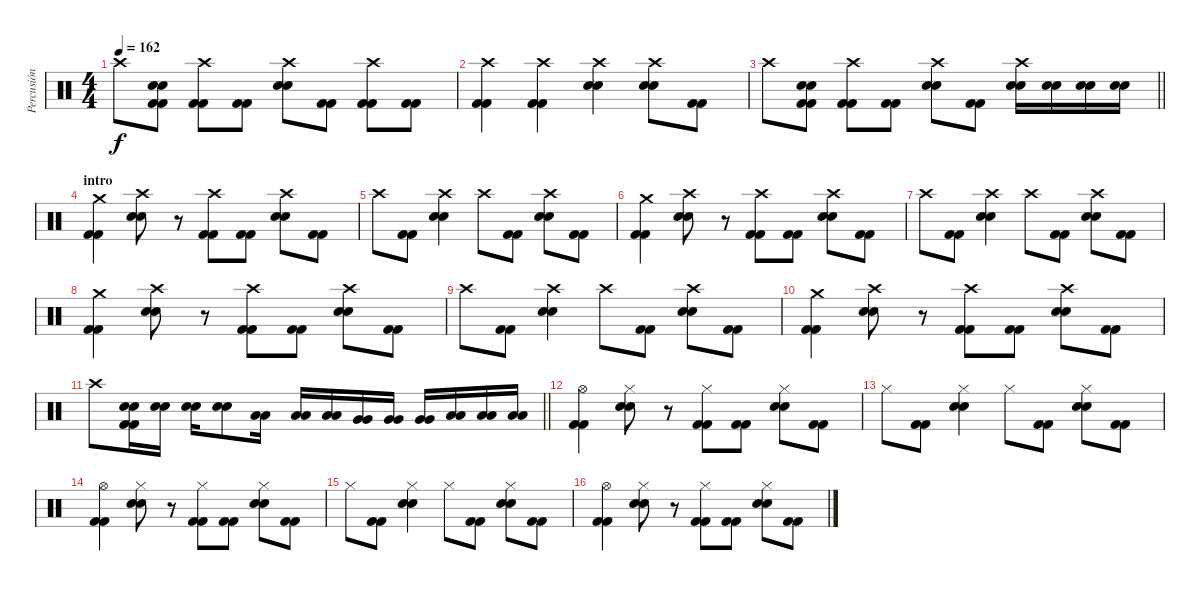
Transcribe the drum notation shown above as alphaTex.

\track ("Percusión" "Percusión") {instrument percussion}
\staff {score}
\articulation defaults
\ts (4 4)
\tempo 162
\clef neutral
\ks c "Crash high (hit)".8{dy f}
("Electric Snare (hit)" "Electric Snare (hit)" "Kick (hit) 2" "Kick (hit) 2").8 ("Crash high (hit)" "Kick (hit) 2" "Kick (hit) 2").8 ("Kick (hit) 2" "Kick (hit) 2").8 ("Crash high (hit)" "Electric Snare (hit)" "Electric Snare (hit)").8 ("Kick (hit) 2" "Kick (hit) 2").8 ("Crash high (hit)" "Kick (hit) 2" "Kick (hit) 2").8 ("Kick (hit) 2" "Kick (hit) 2").8 |
("Crash high (hit)" "Kick (hit) 2" "Kick (hit) 2").4 ("Crash high (hit)" "Kick (hit) 2" "Kick (hit) 2").4 ("Crash high (hit)" "Electric Snare (hit)" "Electric Snare (hit)").4 ("Crash high (hit)" "Electric Snare (hit)" "Electric Snare (hit)").8 ("Kick (hit) 2" "Kick (hit) 2").8 |
\barLineRight lightlight "Crash high (hit)".8
("Electric Snare (hit)" "Electric Snare (hit)" "Kick (hit) 2" "Kick (hit) 2").8 ("Crash high (hit)" "Kick (hit) 2" "Kick (hit) 2").8 ("Kick (hit) 2" "Kick (hit) 2").8 ("Crash high (hit)" "Electric Snare (hit)" "Electric Snare (hit)").8 ("Kick (hit) 2" "Kick (hit) 2").8 ("Crash high (hit)" "Electric Snare (hit)" "Electric Snare (hit)").16 ("Electric Snare (hit)" "Electric Snare (hit)").16 ("Electric Snare (hit)" "Electric Snare (hit)").16 ("Electric Snare (hit)" "Electric Snare (hit)").16 |
\section ("" "intro")
("Crash medium (hit)" "Kick (hit) 2" "Kick (hit) 2").4 ("Crash high (hit)" "Electric Snare (hit)" "Electric Snare (hit)").8 r.8 ("Crash high (hit)" "Kick (hit) 2" "Kick (hit) 2").8 ("Kick (hit) 2" "Kick (hit) 2").8 ("Crash high (hit)" "Electric Snare (hit)" "Electric Snare (hit)").8 ("Kick (hit) 2" "Kick (hit) 2").8 |
"Crash high (hit)".8 ("Kick (hit) 2" "Kick (hit) 2").8 ("Crash high (hit)" "Electric Snare (hit)" "Electric Snare (hit)").4 "Crash high (hit)".8 ("Kick (hit) 2" "Kick (hit) 2").8 ("Crash high (hit)" "Electric Snare (hit)" "Electric Snare (hit)").8 ("Kick (hit) 2" "Kick (hit) 2").8 |
("Crash medium (hit)" "Kick (hit) 2" "Kick (hit) 2").4 ("Crash high (hit)" "Electric Snare (hit)" "Electric Snare (hit)").8 r.8 ("Crash high (hit)" "Kick (hit) 2" "Kick (hit) 2").8 ("Kick (hit) 2" "Kick (hit) 2").8 ("Crash high (hit)" "Electric Snare (hit)" "Electric Snare (hit)").8 ("Kick (hit) 2" "Kick (hit) 2").8 |
"Crash high (hit)".8 ("Kick (hit) 2" "Kick (hit) 2").8 ("Crash high (hit)" "Electric Snare (hit)" "Electric Snare (hit)").4 "Crash high (hit)".8 ("Kick (hit) 2" "Kick (hit) 2").8 ("Crash high (hit)" "Electric Snare (hit)" "Electric Snare (hit)").8 ("Kick (hit) 2" "Kick (hit) 2").8 |
("Crash medium (hit)" "Kick (hit) 2" "Kick (hit) 2").4 ("Crash high (hit)" "Electric Snare (hit)" "Electric Snare (hit)").8 r.8 ("Crash high (hit)" "Kick (hit) 2" "Kick (hit) 2").8 ("Kick (hit) 2" "Kick (hit) 2").8 ("Crash high (hit)" "Electric Snare (hit)" "Electric Snare (hit)").8 ("Kick (hit) 2" "Kick (hit) 2").8 |
"Crash high (hit)".8 ("Kick (hit) 2" "Kick (hit) 2").8 ("Crash high (hit)" "Electric Snare (hit)" "Electric Snare (hit)").4 "Crash high (hit)".8 ("Kick (hit) 2" "Kick (hit) 2").8 ("Crash high (hit)" "Electric Snare (hit)" "Electric Snare (hit)").8 ("Kick (hit) 2" "Kick (hit) 2").8 |
("Crash medium (hit)" "Kick (hit) 2" "Kick (hit) 2").4 ("Crash high (hit)" "Electric Snare (hit)" "Electric Snare (hit)").8 r.8 ("Crash high (hit)" "Kick (hit) 2" "Kick (hit) 2").8 ("Kick (hit) 2" "Kick (hit) 2").8 ("Crash high (hit)" "Electric Snare (hit)" "Electric Snare (hit)").8 ("Kick (hit) 2" "Kick (hit) 2").8 |
\barLineRight lightlight "Crash high (hit)".8
("Electric Snare (hit)" "Electric Snare (hit)" "Kick (hit) 2" "Kick (hit) 2").16 ("Electric Snare (hit)" "Electric Snare (hit)").16 ("Electric Snare (hit)" "Electric Snare (hit)").16 ("Electric Snare (hit)" "Electric Snare (hit)").8 ("Low Tom (hit)" "Low Tom (hit)").16 ("Low Tom (hit)" "Low Tom (hit)").16 ("Low Tom (hit)" "Low Tom (hit)").16 ("Very Low Tom (hit)" "Very Low Tom (hit)").16 ("Very Low Tom (hit)" "Very Low Tom (hit)").16 ("Very Low Tom (hit)" "Very Low Tom (hit)").16 ("Low Floor Tom (hit)" "Low Floor Tom (hit)").16 ("Low Floor Tom (hit)" "Low Floor Tom (hit)").16 ("Low Floor Tom (hit)" "Low Floor Tom (hit)").16 |
("Hi-Hat (open)" "Kick (hit) 2" "Kick (hit) 2").4 ("Hi-Hat (closed)" "Electric Snare (hit)" "Electric Snare (hit)").8 r.8 ("Hi-Hat (closed)" "Kick (hit) 2" "Kick (hit) 2").8 ("Kick (hit) 2" "Kick (hit) 2").8 ("Hi-Hat (closed)" "Electric Snare (hit)" "Electric Snare (hit)").8 ("Kick (hit) 2" "Kick (hit) 2").8 |
"Hi-Hat (closed)".8 ("Kick (hit) 2" "Kick (hit) 2").8 ("Hi-Hat (closed)" "Electric Snare (hit)" "Electric Snare (hit)").4 "Hi-Hat (closed)".8 ("Kick (hit) 2" "Kick (hit) 2").8 ("Hi-Hat (closed)" "Electric Snare (hit)" "Electric Snare (hit)").8 ("Kick (hit) 2" "Kick (hit) 2").8 |
("Hi-Hat (open)" "Kick (hit) 2" "Kick (hit) 2").4 ("Hi-Hat (closed)" "Electric Snare (hit)" "Electric Snare (hit)").8 r.8 ("Hi-Hat (closed)" "Kick (hit) 2" "Kick (hit) 2").8 ("Kick (hit) 2" "Kick (hit) 2").8 ("Hi-Hat (closed)" "Electric Snare (hit)" "Electric Snare (hit)").8 ("Kick (hit) 2" "Kick (hit) 2").8 |
"Hi-Hat (closed)".8 ("Kick (hit) 2" "Kick (hit) 2").8 ("Hi-Hat (closed)" "Electric Snare (hit)" "Electric Snare (hit)").4 "Hi-Hat (closed)".8 ("Kick (hit) 2" "Kick (hit) 2").8 ("Hi-Hat (closed)" "Electric Snare (hit)" "Electric Snare (hit)").8 ("Kick (hit) 2" "Kick (hit) 2").8 |
("Hi-Hat (open)" "Kick (hit) 2" "Kick (hit) 2").4 ("Hi-Hat (closed)" "Electric Snare (hit)" "Electric Snare (hit)").8 r.8 ("Hi-Hat (closed)" "Kick (hit) 2" "Kick (hit) 2").8 ("Kick (hit) 2" "Kick (hit) 2").8 ("Hi-Hat (closed)" "Electric Snare (hit)" "Electric Snare (hit)").8 ("Kick (hit) 2" "Kick (hit) 2").8
